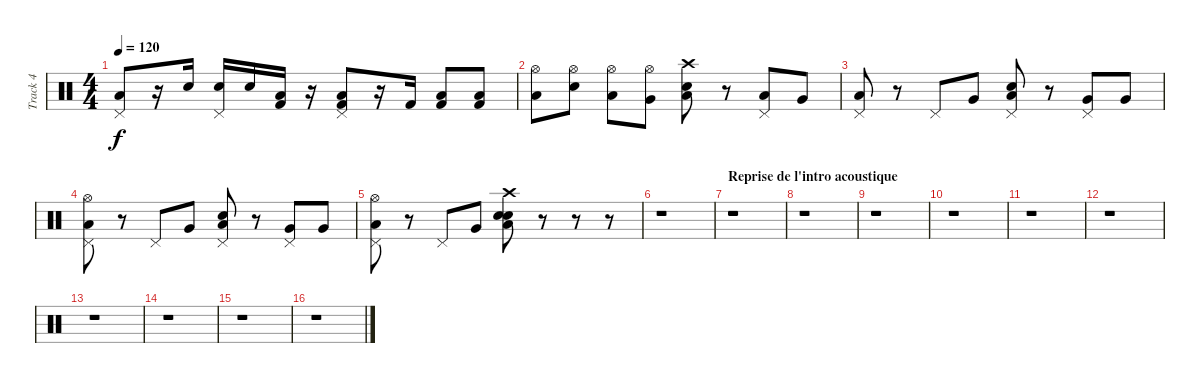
\track ("Track 4" "Track 4") {instrument percussion}
\staff {score}
\articulation defaults
\ts (4 4)
\tempo 120
\clef neutral
\ks c
("Pedal Hi-Hat (hit)" "Low Tom (hit)").8{dy f} r.16 "Electric Snare (hit)".16 ("Pedal Hi-Hat (hit)" "Electric Snare (hit)").16 "Electric Snare (hit)".16 ("Low Tom (hit)" "Kick (hit) 2").16 r.16 ("Kick (hit) 2" "Low Tom (hit)" "Pedal Hi-Hat (hit)").8 r.16 "Kick (hit) 2".16 ("Kick (hit) 2" "Low Tom (hit)").8 ("Kick (hit) 2" "Low Tom (hit)").8 |
("Low Tom (hit)" "Hi-Hat (open)").8 ("Electric Snare (hit)" "Hi-Hat (open)").8 ("Low Tom (hit)" "Hi-Hat (open)").8 ("Very Low Tom (hit)" "Hi-Hat (open)").8 ("Low Tom (hit)" "Electric Snare (hit)" "Crash high (hit)").8 r.8 ("Pedal Hi-Hat (hit)" "Low Floor Tom (hit)").8 "Very Low Tom (hit)".8 |
("Pedal Hi-Hat (hit)" "Low Tom (hit)").8 r.8 "Pedal Hi-Hat (hit)".8 "Very Low Tom (hit)".8 ("Pedal Hi-Hat (hit)" "Low Tom (hit)" "Electric Snare (hit)").8 r.8 ("Pedal Hi-Hat (hit)" "Very Low Tom (hit)").8 "Very Low Tom (hit)".8 |
("Pedal Hi-Hat (hit)" "Low Tom (hit)" "Hi-Hat (open)").8 r.8 "Pedal Hi-Hat (hit)".8 "Very Low Tom (hit)".8 ("Pedal Hi-Hat (hit)" "Low Tom (hit)" "Electric Snare (hit)").8 r.8 ("Pedal Hi-Hat (hit)" "Very Low Tom (hit)").8 "Very Low Tom (hit)".8 |
("Pedal Hi-Hat (hit)" "Low Tom (hit)" "Hi-Hat (open)").8 r.8 "Pedal Hi-Hat (hit)".8 "Very Low Tom (hit)".8 ("Low Tom (hit)" "Electric Snare (hit)" "Crash high (hit)" "Snare (hit) 2").8 r.8 r.8 r.8 |
r.1 |
\section ("" "Reprise de l'intro acoustique")
r.1 |
r.1 |
r.1 |
r.1 |
r.1 |
r.1 |
r.1 |
r.1 |
r.1 |
r.1
